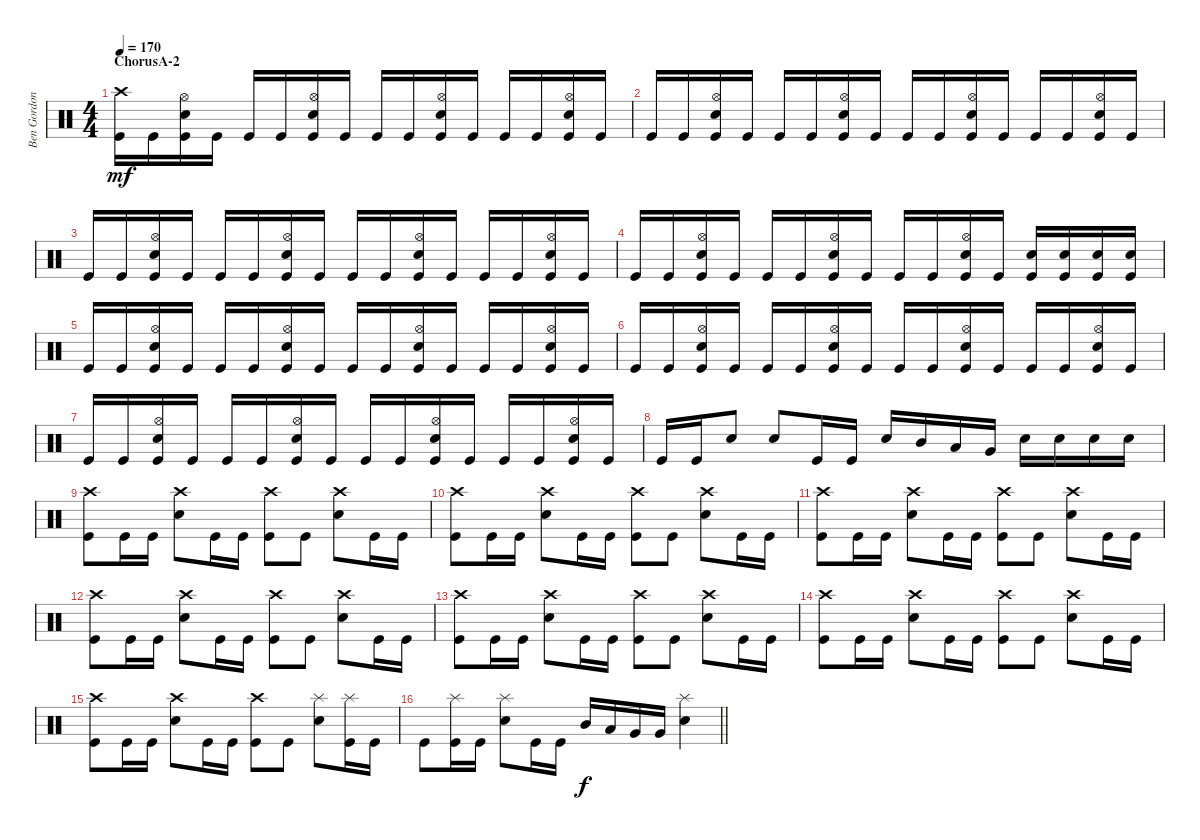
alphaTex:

\track ("Ben Gordon" "Ben Gordon") {instrument percussion}
\staff {score}
\articulation defaults
\ts (4 4)
\section ("" "ChorusA-2")
\tempo 170
\clef neutral
\ks c
("Crash high (hit)" "Kick (hit)").16{dy mf} "Kick (hit)".16 ("Hi-Hat (open)" "Electric Snare (hit)" "Kick (hit)").16 "Kick (hit)".16 "Kick (hit)".16 "Kick (hit)".16 ("Hi-Hat (open)" "Electric Snare (hit)" "Kick (hit)").16 "Kick (hit)".16 "Kick (hit)".16 "Kick (hit)".16 ("Hi-Hat (open)" "Electric Snare (hit)" "Kick (hit)").16 "Kick (hit)".16 "Kick (hit)".16 "Kick (hit)".16 ("Hi-Hat (open)" "Electric Snare (hit)" "Kick (hit)").16 "Kick (hit)".16 |
"Kick (hit)".16 "Kick (hit)".16 ("Hi-Hat (open)" "Electric Snare (hit)" "Kick (hit)").16 "Kick (hit)".16 "Kick (hit)".16 "Kick (hit)".16 ("Hi-Hat (open)" "Electric Snare (hit)" "Kick (hit)").16 "Kick (hit)".16 "Kick (hit)".16 "Kick (hit)".16 ("Hi-Hat (open)" "Electric Snare (hit)" "Kick (hit)").16 "Kick (hit)".16 "Kick (hit)".16 "Kick (hit)".16 ("Hi-Hat (open)" "Electric Snare (hit)" "Kick (hit)").16 "Kick (hit)".16 |
"Kick (hit)".16 "Kick (hit)".16 ("Hi-Hat (open)" "Electric Snare (hit)" "Kick (hit)").16 "Kick (hit)".16 "Kick (hit)".16 "Kick (hit)".16 ("Hi-Hat (open)" "Electric Snare (hit)" "Kick (hit)").16 "Kick (hit)".16 "Kick (hit)".16 "Kick (hit)".16 ("Hi-Hat (open)" "Electric Snare (hit)" "Kick (hit)").16 "Kick (hit)".16 "Kick (hit)".16 "Kick (hit)".16 ("Hi-Hat (open)" "Electric Snare (hit)" "Kick (hit)").16 "Kick (hit)".16 |
"Kick (hit)".16 "Kick (hit)".16 ("Hi-Hat (open)" "Electric Snare (hit)" "Kick (hit)").16 "Kick (hit)".16 "Kick (hit)".16 "Kick (hit)".16 ("Hi-Hat (open)" "Electric Snare (hit)" "Kick (hit)").16 "Kick (hit)".16 "Kick (hit)".16 "Kick (hit)".16 ("Hi-Hat (open)" "Electric Snare (hit)" "Kick (hit)").16 "Kick (hit)".16 ("Electric Snare (hit)" "Kick (hit)").16 ("Electric Snare (hit)" "Kick (hit)").16 ("Electric Snare (hit)" "Kick (hit)").16 ("Electric Snare (hit)" "Kick (hit)").16 |
"Kick (hit)".16 "Kick (hit)".16 ("Hi-Hat (open)" "Electric Snare (hit)" "Kick (hit)").16 "Kick (hit)".16 "Kick (hit)".16 "Kick (hit)".16 ("Hi-Hat (open)" "Electric Snare (hit)" "Kick (hit)").16 "Kick (hit)".16 "Kick (hit)".16 "Kick (hit)".16 ("Hi-Hat (open)" "Electric Snare (hit)" "Kick (hit)").16 "Kick (hit)".16 "Kick (hit)".16 "Kick (hit)".16 ("Hi-Hat (open)" "Electric Snare (hit)" "Kick (hit)").16 "Kick (hit)".16 |
"Kick (hit)".16 "Kick (hit)".16 ("Hi-Hat (open)" "Electric Snare (hit)" "Kick (hit)").16 "Kick (hit)".16 "Kick (hit)".16 "Kick (hit)".16 ("Hi-Hat (open)" "Electric Snare (hit)" "Kick (hit)").16 "Kick (hit)".16 "Kick (hit)".16 "Kick (hit)".16 ("Hi-Hat (open)" "Electric Snare (hit)" "Kick (hit)").16 "Kick (hit)".16 "Kick (hit)".16 "Kick (hit)".16 ("Hi-Hat (open)" "Electric Snare (hit)" "Kick (hit)").16 "Kick (hit)".16 |
"Kick (hit)".16 "Kick (hit)".16 ("Hi-Hat (open)" "Electric Snare (hit)" "Kick (hit)").16 "Kick (hit)".16 "Kick (hit)".16 "Kick (hit)".16 ("Hi-Hat (open)" "Electric Snare (hit)" "Kick (hit)").16 "Kick (hit)".16 "Kick (hit)".16 "Kick (hit)".16 ("Hi-Hat (open)" "Electric Snare (hit)" "Kick (hit)").16 "Kick (hit)".16 "Kick (hit)".16 "Kick (hit)".16 ("Hi-Hat (open)" "Electric Snare (hit)" "Kick (hit)").16 "Kick (hit)".16 |
"Kick (hit)".16 "Kick (hit)".16 "Electric Snare (hit)".8 "Electric Snare (hit)".8 "Kick (hit)".16 "Kick (hit)".16 "Electric Snare (hit)".16 "Mid Tom (hit)".16 "Low Tom (hit)".16 "Very Low Tom (hit)".16 "Electric Snare (hit)".16 "Electric Snare (hit)".16 "Electric Snare (hit)".16 "Electric Snare (hit)".16 |
("Crash high (hit)" "Kick (hit)").8 "Kick (hit)".16 "Kick (hit)".16 ("Crash high (hit)" "Electric Snare (hit)").8 "Kick (hit)".16 "Kick (hit)".16 ("Crash high (hit)" "Kick (hit)").8 "Kick (hit)".8 ("Crash high (hit)" "Electric Snare (hit)").8 "Kick (hit)".16 "Kick (hit)".16 |
("Crash high (hit)" "Kick (hit)").8 "Kick (hit)".16 "Kick (hit)".16 ("Crash high (hit)" "Electric Snare (hit)").8 "Kick (hit)".16 "Kick (hit)".16 ("Crash high (hit)" "Kick (hit)").8 "Kick (hit)".8 ("Crash high (hit)" "Electric Snare (hit)").8 "Kick (hit)".16 "Kick (hit)".16 |
("Crash high (hit)" "Kick (hit)").8 "Kick (hit)".16 "Kick (hit)".16 ("Crash high (hit)" "Electric Snare (hit)").8 "Kick (hit)".16 "Kick (hit)".16 ("Crash high (hit)" "Kick (hit)").8 "Kick (hit)".8 ("Crash high (hit)" "Electric Snare (hit)").8 "Kick (hit)".16 "Kick (hit)".16 |
("Crash high (hit)" "Kick (hit)").8 "Kick (hit)".16 "Kick (hit)".16 ("Crash high (hit)" "Electric Snare (hit)").8 "Kick (hit)".16 "Kick (hit)".16 ("Crash high (hit)" "Kick (hit)").8 "Kick (hit)".8 ("Crash high (hit)" "Electric Snare (hit)").8 "Kick (hit)".16 "Kick (hit)".16 |
("Crash high (hit)" "Kick (hit)").8 "Kick (hit)".16 "Kick (hit)".16 ("Crash high (hit)" "Electric Snare (hit)").8 "Kick (hit)".16 "Kick (hit)".16 ("Crash high (hit)" "Kick (hit)").8 "Kick (hit)".8 ("Crash high (hit)" "Electric Snare (hit)").8 "Kick (hit)".16 "Kick (hit)".16 |
("Crash high (hit)" "Kick (hit)").8 "Kick (hit)".16 "Kick (hit)".16 ("Crash high (hit)" "Electric Snare (hit)").8 "Kick (hit)".16 "Kick (hit)".16 ("Crash high (hit)" "Kick (hit)").8 "Kick (hit)".8 ("Crash high (hit)" "Electric Snare (hit)").8 "Kick (hit)".16 "Kick (hit)".16 |
("Crash high (hit)" "Kick (hit)").8 "Kick (hit)".16 "Kick (hit)".16 ("Crash high (hit)" "Electric Snare (hit)").8 "Kick (hit)".16 "Kick (hit)".16 ("Crash high (hit)" "Kick (hit)").8 "Kick (hit)".8 ("Splash (hit)" "Electric Snare (hit)").8 ("Splash (hit)" "Kick (hit)").16 "Kick (hit)".16 |
\barLineRight lightlight "Kick (hit)".8
("Splash (hit)" "Kick (hit)").16 "Kick (hit)".16 ("Splash (hit)" "Electric Snare (hit)").8 "Kick (hit)".16 "Kick (hit)".16 "Mid Tom (hit)".16{dy f} "Low Tom (hit)".16 "Very Low Tom (hit)".16 "Very Low Tom (hit)".16 ("Splash (hit)" "Electric Snare (hit)").4
